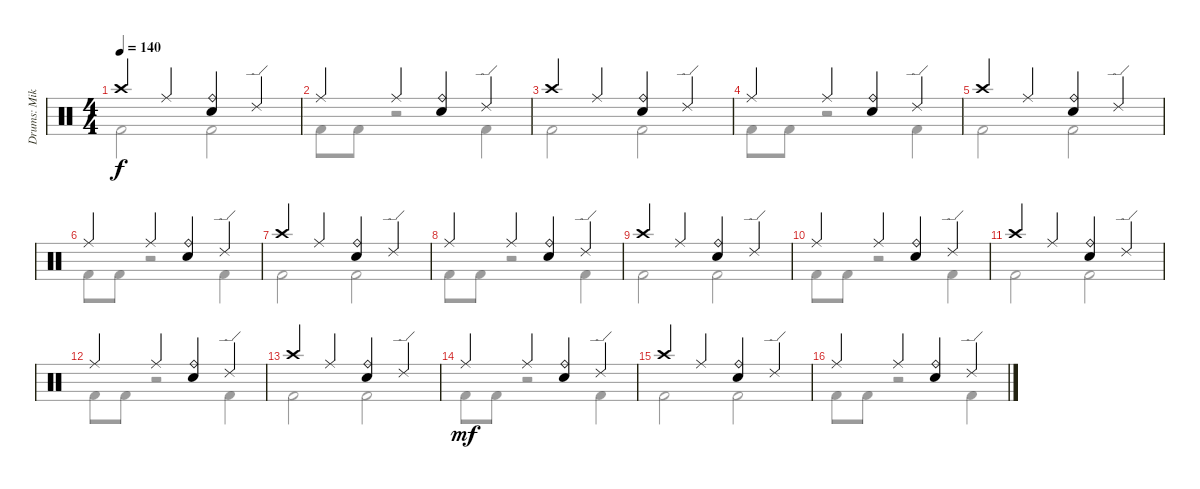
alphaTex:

\track ("Drums: Mike" "Drums: Mik") {instrument percussion}
\staff {score}
\articulation defaults
\voice
\ts (4 4)
\tempo 140
\clef neutral
\ks c "Crash high (hit)".4{dy f} "Ride (middle)".4
("Ride (bell)" "Snare (hit) 2").4 "Ride (edge) 2".4 |
"Ride (middle)".4 "Ride (middle)".4 ("Ride (bell)" "Snare (hit) 2").4 "Ride (edge) 2".4 |
"Crash high (hit)".4 "Ride (middle)".4 ("Ride (bell)" "Snare (hit) 2").4 "Ride (edge) 2".4 |
"Ride (middle)".4 "Ride (middle)".4 ("Ride (bell)" "Snare (hit) 2").4 "Ride (edge) 2".4 |
"Crash high (hit)".4 "Ride (middle)".4 ("Ride (bell)" "Snare (hit) 2").4 "Ride (edge) 2".4 |
"Ride (middle)".4 "Ride (middle)".4 ("Ride (bell)" "Snare (hit) 2").4 "Ride (edge) 2".4 |
"Crash high (hit)".4 "Ride (middle)".4 ("Ride (bell)" "Snare (hit) 2").4 "Ride (edge) 2".4 |
"Ride (middle)".4 "Ride (middle)".4 ("Ride (bell)" "Snare (hit) 2").4 "Ride (edge) 2".4 |
"Crash high (hit)".4 "Ride (middle)".4 ("Ride (bell)" "Snare (hit) 2").4 "Ride (edge) 2".4 |
"Ride (middle)".4 "Ride (middle)".4 ("Ride (bell)" "Snare (hit) 2").4 "Ride (edge) 2".4 |
"Crash high (hit)".4 "Ride (middle)".4 ("Ride (bell)" "Snare (hit) 2").4 "Ride (edge) 2".4 |
"Ride (middle)".4 "Ride (middle)".4 ("Ride (bell)" "Snare (hit) 2").4 "Ride (edge) 2".4 |
"Crash high (hit)".4 "Ride (middle)".4 ("Ride (bell)" "Snare (hit) 2").4 "Ride (edge) 2".4 |
"Ride (middle)".4{dy mf volume 8} "Ride (middle)".4 ("Ride (bell)" "Snare (hit) 2").4 "Ride (edge) 2".4 |
"Crash high (hit)".4 "Ride (middle)".4 ("Ride (bell)" "Snare (hit) 2").4 "Ride (edge) 2".4 |
"Ride (middle)".4 "Ride (middle)".4 ("Ride (bell)" "Snare (hit) 2").4 "Ride (edge) 2".4
\voice
\clef neutral
\ottava regular
\simile none
\ks c "Kick (hit) 2".2{dy f} "Kick (hit) 2".2
|
"Kick (hit) 2".8 "Kick (hit) 2".8 r.2 "Kick (hit) 2".4 |
"Kick (hit) 2".2 "Kick (hit) 2".2 |
"Kick (hit) 2".8 "Kick (hit) 2".8 r.2 "Kick (hit) 2".4 |
"Kick (hit) 2".2 "Kick (hit) 2".2 |
"Kick (hit) 2".8 "Kick (hit) 2".8 r.2 "Kick (hit) 2".4 |
"Kick (hit) 2".2 "Kick (hit) 2".2 |
"Kick (hit) 2".8 "Kick (hit) 2".8 r.2 "Kick (hit) 2".4 |
"Kick (hit) 2".2 "Kick (hit) 2".2 |
"Kick (hit) 2".8 "Kick (hit) 2".8 r.2 "Kick (hit) 2".4 |
"Kick (hit) 2".2 "Kick (hit) 2".2 |
"Kick (hit) 2".8 "Kick (hit) 2".8 r.2 "Kick (hit) 2".4 |
"Kick (hit) 2".2 "Kick (hit) 2".2 |
"Kick (hit) 2".8{dy mf} "Kick (hit) 2".8 r.2 "Kick (hit) 2".4 |
"Kick (hit) 2".2 "Kick (hit) 2".2 |
"Kick (hit) 2".8 "Kick (hit) 2".8 r.2 "Kick (hit) 2".4
